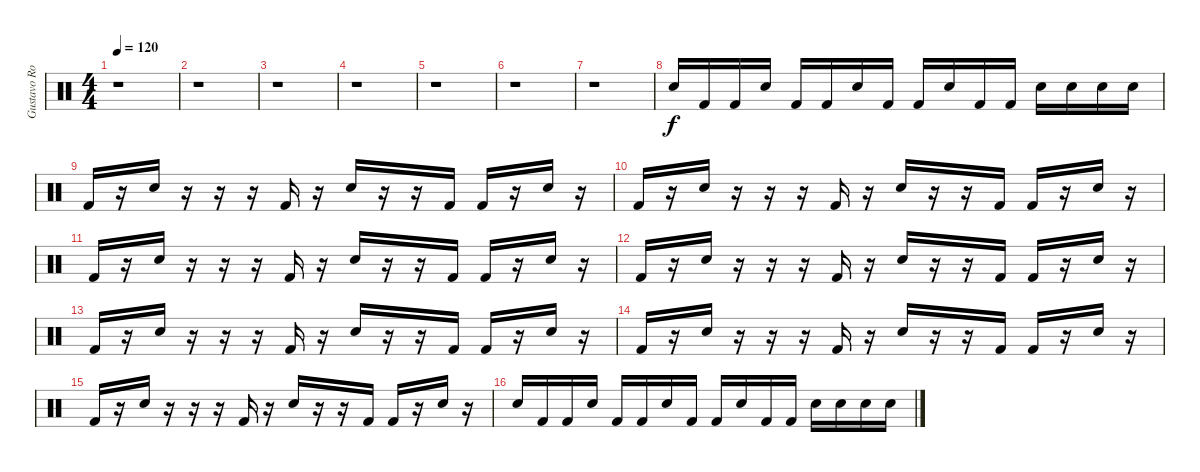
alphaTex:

\track ("Gustavo Rowek" "Gustavo Ro") {instrument percussion}
\staff {score}
\articulation defaults
\ts (4 4)
\tempo 120
\clef neutral
\ks c
r.1{dy f} |
r.1 |
r.1 |
r.1 |
r.1 |
r.1 |
r.1 |
"Snare (hit) 2".16 "Kick (hit) 2".16 "Kick (hit) 2".16 "Snare (hit) 2".16 "Kick (hit) 2".16 "Kick (hit) 2".16 "Snare (hit) 2".16 "Kick (hit) 2".16 "Kick (hit) 2".16 "Snare (hit) 2".16 "Kick (hit) 2".16 "Kick (hit) 2".16 "Snare (hit) 2".16 "Snare (hit) 2".16 "Snare (hit) 2".16 "Snare (hit) 2".16 |
"Kick (hit) 2".16 r.16 "Snare (hit) 2".16 r.16 r.16 r.16 "Kick (hit) 2".16 r.16 "Snare (hit) 2".16 r.16 r.16 "Kick (hit) 2".16 "Kick (hit) 2".16 r.16 "Snare (hit) 2".16 r.16 |
"Kick (hit) 2".16 r.16 "Snare (hit) 2".16 r.16 r.16 r.16 "Kick (hit) 2".16 r.16 "Snare (hit) 2".16 r.16 r.16 "Kick (hit) 2".16 "Kick (hit) 2".16 r.16 "Snare (hit) 2".16 r.16 |
"Kick (hit) 2".16 r.16 "Snare (hit) 2".16 r.16 r.16 r.16 "Kick (hit) 2".16 r.16 "Snare (hit) 2".16 r.16 r.16 "Kick (hit) 2".16 "Kick (hit) 2".16 r.16 "Snare (hit) 2".16 r.16 |
"Kick (hit) 2".16 r.16 "Snare (hit) 2".16 r.16 r.16 r.16 "Kick (hit) 2".16 r.16 "Snare (hit) 2".16 r.16 r.16 "Kick (hit) 2".16 "Kick (hit) 2".16 r.16 "Snare (hit) 2".16 r.16 |
"Kick (hit) 2".16 r.16 "Snare (hit) 2".16 r.16 r.16 r.16 "Kick (hit) 2".16 r.16 "Snare (hit) 2".16 r.16 r.16 "Kick (hit) 2".16 "Kick (hit) 2".16 r.16 "Snare (hit) 2".16 r.16 |
"Kick (hit) 2".16 r.16 "Snare (hit) 2".16 r.16 r.16 r.16 "Kick (hit) 2".16 r.16 "Snare (hit) 2".16 r.16 r.16 "Kick (hit) 2".16 "Kick (hit) 2".16 r.16 "Snare (hit) 2".16 r.16 |
"Kick (hit) 2".16 r.16 "Snare (hit) 2".16 r.16 r.16 r.16 "Kick (hit) 2".16 r.16 "Snare (hit) 2".16 r.16 r.16 "Kick (hit) 2".16 "Kick (hit) 2".16 r.16 "Snare (hit) 2".16 r.16 |
"Snare (hit) 2".16 "Kick (hit) 2".16 "Kick (hit) 2".16 "Snare (hit) 2".16 "Kick (hit) 2".16 "Kick (hit) 2".16 "Snare (hit) 2".16 "Kick (hit) 2".16 "Kick (hit) 2".16 "Snare (hit) 2".16 "Kick (hit) 2".16 "Kick (hit) 2".16 "Snare (hit) 2".16 "Snare (hit) 2".16 "Snare (hit) 2".16 "Snare (hit) 2".16
